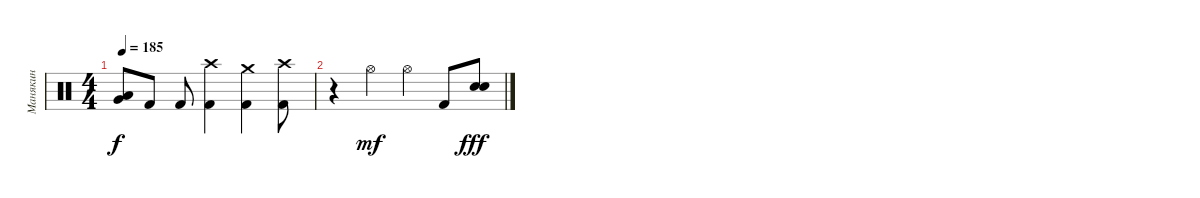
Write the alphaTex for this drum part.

\track ("Манякин" "Манякин") {instrument percussion}
\staff {score}
\articulation defaults
\ts (4 4)
\tempo 185
\clef neutral
\ks c
("Very Low Tom (hit)" "Low Floor Tom (hit)").8{dy f} "Kick (hit) 2".8 "Kick (hit) 2".8 ("Crash high (hit)" "Kick (hit) 2").4 ("Crash medium (hit)" "Kick (hit) 2").4 ("Crash high (hit)" "Kick (hit) 2").8 |
r.4 "Hi-Hat (open)".4{dy mf} "Hi-Hat (open)".4 "Kick (hit) 2".8 ("Electric Snare (hit)" "Electric Snare (hit)").8{dy fff}
